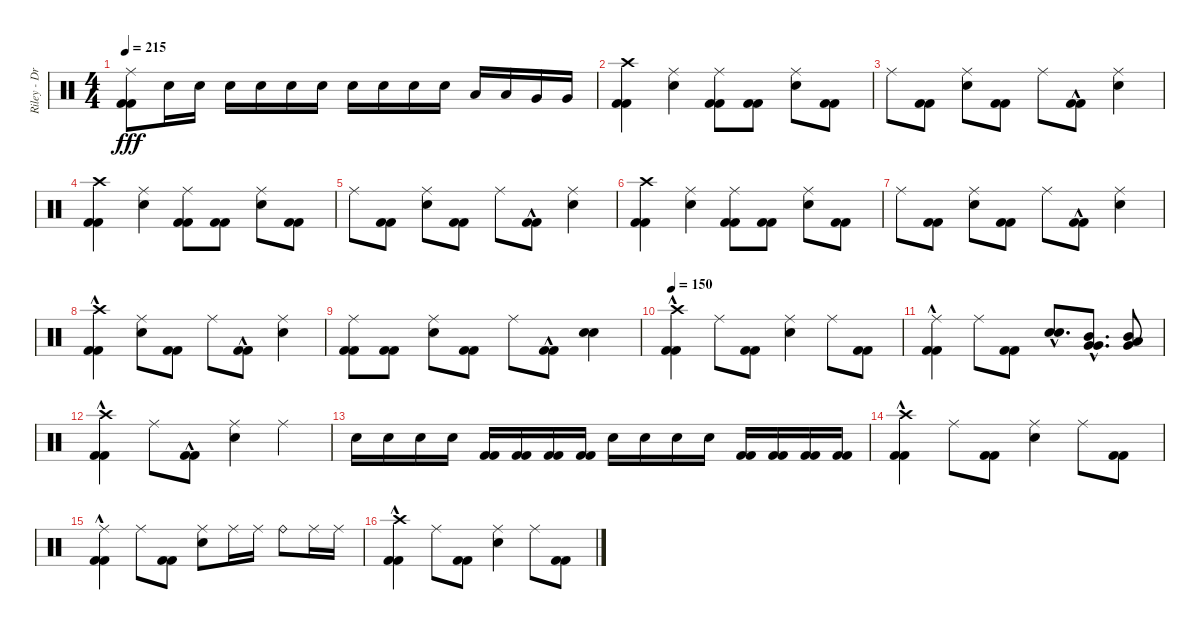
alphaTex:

\track ("Riley - Drums" "Riley - Dr") {instrument percussion}
\staff {score}
\articulation defaults
\ts (4 4)
\tempo 215
\clef neutral
\ks c
("Kick (hit) 2" "Kick (hit) 2" "Ride (middle)").8{dy fff} "Electric Snare (hit)".16 "Electric Snare (hit)".16 "Electric Snare (hit)".16 "Electric Snare (hit)".16 "Electric Snare (hit)".16 "Electric Snare (hit)".16 "Electric Snare (hit)".16 "Electric Snare (hit)".16 "Electric Snare (hit)".16 "Electric Snare (hit)".16 "Low Tom (hit)".16 "Low Tom (hit)".16 "Very Low Tom (hit)".16 "Very Low Tom (hit)".16 |
("Kick (hit) 2" "Kick (hit) 2" "Crash high (hit)").4 ("Electric Snare (hit)" "Ride (middle)").4 ("Kick (hit) 2" "Kick (hit) 2" "Ride (middle)").8 ("Kick (hit) 2" "Kick (hit) 2").8 ("Electric Snare (hit)" "Ride (middle)").8 ("Kick (hit) 2" "Kick (hit) 2").8 |
"Ride (middle)".8 ("Kick (hit) 2" "Kick (hit) 2").8 ("Electric Snare (hit)" "Ride (middle)").8 ("Kick (hit) 2" "Kick (hit) 2").8 "Ride (middle)".8 ("Kick (hit) 2"{hac} "Kick (hit) 2"{hac}).8 ("Electric Snare (hit)" "Ride (middle)").4 |
("Kick (hit) 2" "Kick (hit) 2" "Crash high (hit)").4 ("Electric Snare (hit)" "Ride (middle)").4 ("Kick (hit) 2" "Kick (hit) 2" "Ride (middle)").8 ("Kick (hit) 2" "Kick (hit) 2").8 ("Electric Snare (hit)" "Ride (middle)").8 ("Kick (hit) 2" "Kick (hit) 2").8 |
"Ride (middle)".8 ("Kick (hit) 2" "Kick (hit) 2").8 ("Electric Snare (hit)" "Ride (middle)").8 ("Kick (hit) 2" "Kick (hit) 2").8 "Ride (middle)".8 ("Kick (hit) 2"{hac} "Kick (hit) 2"{hac}).8 ("Electric Snare (hit)" "Ride (middle)").4 |
("Kick (hit) 2" "Kick (hit) 2" "Crash high (hit)").4 ("Electric Snare (hit)" "Ride (middle)").4 ("Kick (hit) 2" "Kick (hit) 2" "Ride (middle)").8 ("Kick (hit) 2" "Kick (hit) 2").8 ("Electric Snare (hit)" "Ride (middle)").8 ("Kick (hit) 2" "Kick (hit) 2").8 |
"Ride (middle)".8 ("Kick (hit) 2" "Kick (hit) 2").8 ("Electric Snare (hit)" "Ride (middle)").8 ("Kick (hit) 2" "Kick (hit) 2").8 "Ride (middle)".8 ("Kick (hit) 2"{hac} "Kick (hit) 2"{hac}).8 ("Electric Snare (hit)" "Ride (middle)").4 |
("Kick (hit) 2"{hac} "Kick (hit) 2"{hac} "Crash high (hit)").4 ("Electric Snare (hit)" "Ride (middle)").8 ("Kick (hit) 2" "Kick (hit) 2").8 "Ride (middle)".8 ("Kick (hit) 2"{hac} "Kick (hit) 2"{hac}).8 ("Electric Snare (hit)" "Ride (middle)").4 |
("Kick (hit) 2" "Kick (hit) 2" "Ride (middle)").8 ("Kick (hit) 2" "Kick (hit) 2").8 ("Electric Snare (hit)" "Ride (middle)").8 ("Kick (hit) 2" "Kick (hit) 2").8 "Ride (middle)".8 ("Kick (hit) 2"{hac} "Kick (hit) 2"{hac}).8 ("Electric Snare (hit)" "Electric Snare (hit)").4 |
\tempo 150
("Kick (hit) 2"{hac} "Kick (hit) 2"{hac} "Crash high (hit)").4 "Ride (middle)".8 ("Kick (hit) 2" "Kick (hit) 2").8 ("Electric Snare (hit)" "Ride (middle)").4 "Ride (middle)".8 ("Kick (hit) 2" "Kick (hit) 2").8 |
("Kick (hit) 2"{hac} "Kick (hit) 2"{hac} "Ride (middle)").4 "Ride (middle)".8 ("Kick (hit) 2" "Kick (hit) 2").8 ("Electric Snare (hit)"{hac} "Electric Snare (hit)"{hac}).8{d} ("Very Low Tom (hit)"{hac} "Very Low Tom (hit)"{hac} "Mid Tom (hit)"{hac}).8{d} ("Low Floor Tom (hit)" "Very Low Tom (hit)" "Mid Tom (hit)").8 |
("Kick (hit) 2"{hac} "Kick (hit) 2"{hac} "Crash high (hit)").4 "Ride (middle)".8 ("Kick (hit) 2"{hac} "Kick (hit) 2"{hac}).8 ("Electric Snare (hit)" "Ride (middle)").4 "Ride (middle)".4 |
"Electric Snare (hit)".16 "Electric Snare (hit)".16 "Electric Snare (hit)".16 "Electric Snare (hit)".16 ("Kick (hit) 2" "Kick (hit) 2").16 ("Kick (hit) 2" "Kick (hit) 2").16 ("Kick (hit) 2" "Kick (hit) 2").16 ("Kick (hit) 2" "Kick (hit) 2").16 "Electric Snare (hit)".16 "Electric Snare (hit)".16 "Electric Snare (hit)".16 "Electric Snare (hit)".16 ("Kick (hit) 2" "Kick (hit) 2").16 ("Kick (hit) 2" "Kick (hit) 2").16 ("Kick (hit) 2" "Kick (hit) 2").16 ("Kick (hit) 2" "Kick (hit) 2").16 |
("Kick (hit) 2"{hac} "Kick (hit) 2"{hac} "Crash high (hit)").4 "Ride (middle)".8 ("Kick (hit) 2" "Kick (hit) 2").8 ("Electric Snare (hit)" "Ride (middle)").4 "Ride (middle)".8 ("Kick (hit) 2" "Kick (hit) 2").8 |
("Kick (hit) 2"{hac} "Kick (hit) 2"{hac} "Ride (middle)").4 "Ride (middle)".8 ("Kick (hit) 2" "Kick (hit) 2").8 ("Electric Snare (hit)" "Ride (middle)").8 "Ride (middle)".16 "Ride (middle)".16 "Ride (bell)".8 "Ride (middle)".16 "Ride (middle)".16 |
("Kick (hit) 2"{hac} "Kick (hit) 2"{hac} "Crash high (hit)").4 "Ride (middle)".8 ("Kick (hit) 2" "Kick (hit) 2").8 ("Electric Snare (hit)" "Ride (middle)").4 "Ride (middle)".8 ("Kick (hit) 2" "Kick (hit) 2").8
